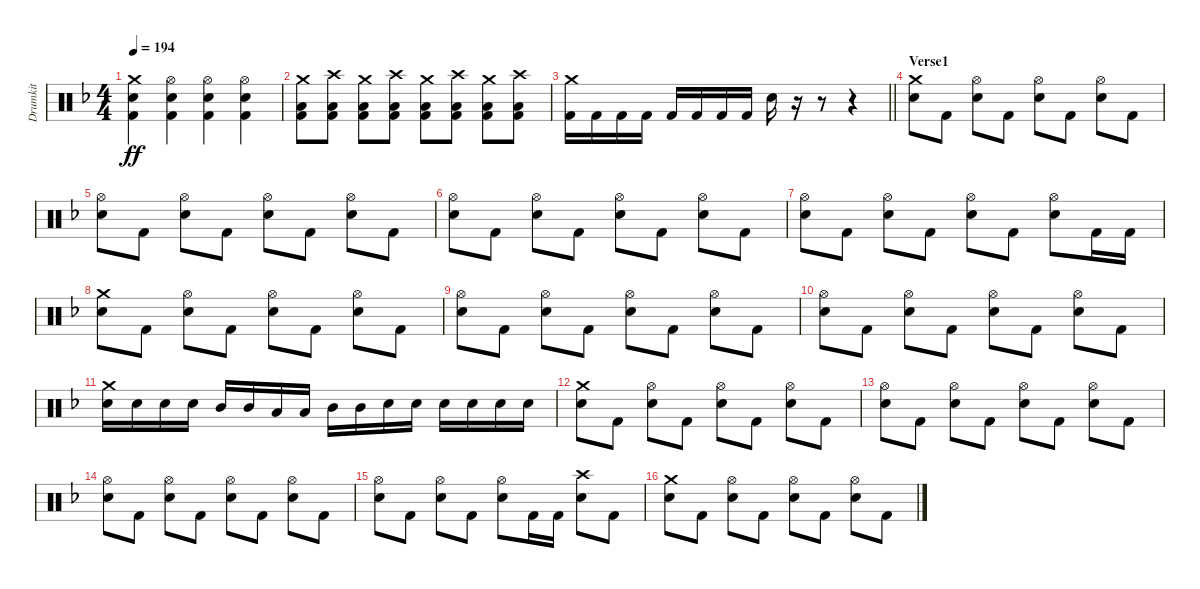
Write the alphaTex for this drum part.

\track ("Drumkit" "Drumkit") {instrument percussion}
\staff {score}
\articulation defaults
\ts (4 4)
\tempo 194
\clef neutral
\ks f
("Crash medium (hit)" "Snare (hit) 2" "Kick (hit) 2").4{dy ff} ("Hi-Hat (open)" "Snare (hit) 2" "Kick (hit) 2").4 ("Hi-Hat (open)" "Snare (hit) 2" "Kick (hit) 2").4 ("Hi-Hat (open)" "Snare (hit) 2" "Kick (hit) 2").4 |
("Crash medium (hit)" "Low Tom (hit)" "Kick (hit) 2").8 ("Crash high (hit)" "Low Tom (hit)" "Kick (hit) 2").8 ("Crash medium (hit)" "Low Tom (hit)" "Kick (hit) 2").8 ("Crash high (hit)" "Low Tom (hit)" "Kick (hit) 2").8 ("Crash medium (hit)" "Low Tom (hit)" "Kick (hit) 2").8 ("Crash high (hit)" "Low Tom (hit)" "Kick (hit) 2").8 ("Crash medium (hit)" "Low Tom (hit)" "Kick (hit) 2").8 ("Crash high (hit)" "Low Tom (hit)" "Kick (hit) 2").8 |
\barLineRight lightlight
("Crash medium (hit)" "Kick (hit) 2").16 "Kick (hit) 2".16 "Kick (hit) 2".16 "Kick (hit) 2".16 "Kick (hit) 2".16 "Kick (hit) 2".16 "Kick (hit) 2".16 "Kick (hit) 2".16 "Snare (hit) 2".16 r.16 r.8 r.4 |
\section ("" "Verse1")
("Crash medium (hit)" "Snare (hit) 2").8 "Kick (hit) 2".8 ("Hi-Hat (open)" "Snare (hit) 2").8 "Kick (hit) 2".8 ("Hi-Hat (open)" "Snare (hit) 2").8 "Kick (hit) 2".8 ("Hi-Hat (open)" "Snare (hit) 2").8 "Kick (hit) 2".8 |
("Hi-Hat (open)" "Snare (hit) 2").8 "Kick (hit) 2".8 ("Hi-Hat (open)" "Snare (hit) 2").8 "Kick (hit) 2".8 ("Hi-Hat (open)" "Snare (hit) 2").8 "Kick (hit) 2".8 ("Hi-Hat (open)" "Snare (hit) 2").8 "Kick (hit) 2".8 |
("Hi-Hat (open)" "Snare (hit) 2").8 "Kick (hit) 2".8 ("Hi-Hat (open)" "Snare (hit) 2").8 "Kick (hit) 2".8 ("Hi-Hat (open)" "Snare (hit) 2").8 "Kick (hit) 2".8 ("Hi-Hat (open)" "Snare (hit) 2").8 "Kick (hit) 2".8 |
("Hi-Hat (open)" "Snare (hit) 2").8 "Kick (hit) 2".8 ("Hi-Hat (open)" "Snare (hit) 2").8 "Kick (hit) 2".8 ("Hi-Hat (open)" "Snare (hit) 2").8 "Kick (hit) 2".8 ("Hi-Hat (open)" "Snare (hit) 2").8 "Kick (hit) 2".16 "Kick (hit) 2".16 |
("Crash medium (hit)" "Snare (hit) 2").8 "Kick (hit) 2".8 ("Hi-Hat (open)" "Snare (hit) 2").8 "Kick (hit) 2".8 ("Hi-Hat (open)" "Snare (hit) 2").8 "Kick (hit) 2".8 ("Hi-Hat (open)" "Snare (hit) 2").8 "Kick (hit) 2".8 |
("Hi-Hat (open)" "Snare (hit) 2").8 "Kick (hit) 2".8 ("Hi-Hat (open)" "Snare (hit) 2").8 "Kick (hit) 2".8 ("Hi-Hat (open)" "Snare (hit) 2").8 "Kick (hit) 2".8 ("Hi-Hat (open)" "Snare (hit) 2").8 "Kick (hit) 2".8 |
("Hi-Hat (open)" "Snare (hit) 2").8 "Kick (hit) 2".8 ("Hi-Hat (open)" "Snare (hit) 2").8 "Kick (hit) 2".8 ("Hi-Hat (open)" "Snare (hit) 2").8 "Kick (hit) 2".8 ("Hi-Hat (open)" "Snare (hit) 2").8 "Kick (hit) 2".8 |
("Crash medium (hit)" "Snare (hit) 2").16 "Snare (hit) 2".16 "Snare (hit) 2".16 "Snare (hit) 2".16 "Mid Tom (hit)".16 "Mid Tom (hit)".16 "Low Tom (hit)".16 "Low Tom (hit)".16 "Mid Tom (hit)".16 "Mid Tom (hit)".16 "Snare (hit) 2".16 "Snare (hit) 2".16 "Snare (hit) 2".16 "Snare (hit) 2".16 "Snare (hit) 2".16 "Snare (hit) 2".16 |
("Crash medium (hit)" "Snare (hit) 2").8 "Kick (hit) 2".8 ("Hi-Hat (open)" "Snare (hit) 2").8 "Kick (hit) 2".8 ("Hi-Hat (open)" "Snare (hit) 2").8 "Kick (hit) 2".8 ("Hi-Hat (open)" "Snare (hit) 2").8 "Kick (hit) 2".8 |
("Hi-Hat (open)" "Snare (hit) 2").8 "Kick (hit) 2".8 ("Hi-Hat (open)" "Snare (hit) 2").8 "Kick (hit) 2".8 ("Hi-Hat (open)" "Snare (hit) 2").8 "Kick (hit) 2".8 ("Hi-Hat (open)" "Snare (hit) 2").8 "Kick (hit) 2".8 |
("Hi-Hat (open)" "Snare (hit) 2").8 "Kick (hit) 2".8 ("Hi-Hat (open)" "Snare (hit) 2").8 "Kick (hit) 2".8 ("Hi-Hat (open)" "Snare (hit) 2").8 "Kick (hit) 2".8 ("Hi-Hat (open)" "Snare (hit) 2").8 "Kick (hit) 2".8 |
("Hi-Hat (open)" "Snare (hit) 2").8 "Kick (hit) 2".8 ("Hi-Hat (open)" "Snare (hit) 2").8 "Kick (hit) 2".8 ("Hi-Hat (open)" "Snare (hit) 2").8 "Kick (hit) 2".16 "Kick (hit) 2".16 ("Crash high (hit)" "Snare (hit) 2").8 "Kick (hit) 2".8 |
("Crash medium (hit)" "Snare (hit) 2").8 "Kick (hit) 2".8 ("Hi-Hat (open)" "Snare (hit) 2").8 "Kick (hit) 2".8 ("Hi-Hat (open)" "Snare (hit) 2").8 "Kick (hit) 2".8 ("Hi-Hat (open)" "Snare (hit) 2").8 "Kick (hit) 2".8
